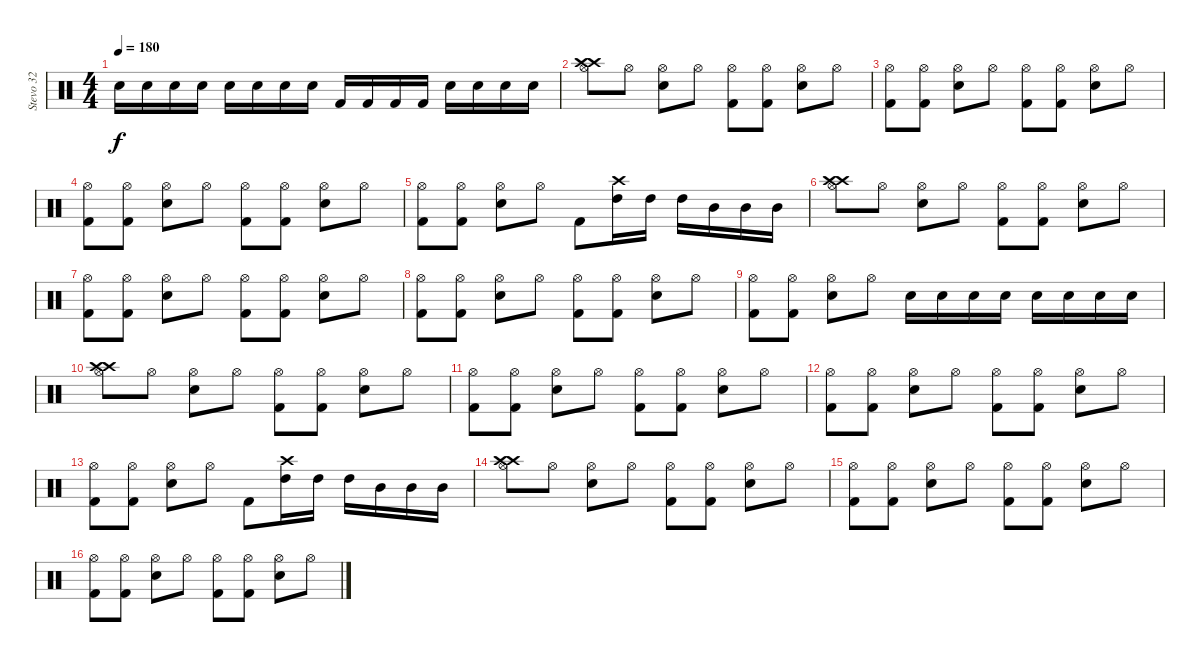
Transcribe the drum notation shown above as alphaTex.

\track ("Stevo 32" "Stevo 32") {instrument percussion}
\staff {score}
\articulation defaults
\ts (4 4)
\tempo 180
\clef neutral
\ks c "Snare (hit) 2".16{dy f} "Snare (hit) 2".16 "Snare (hit) 2".16 "Snare (hit) 2".16 "Snare (hit) 2".16 "Snare (hit) 2".16 "Snare (hit) 2".16 "Snare (hit) 2".16 "Kick (hit) 2".16 "Kick (hit) 2".16 "Kick (hit) 2".16 "Kick (hit) 2".16 "Snare (hit) 2".16 "Snare (hit) 2".16 "Snare (hit) 2".16 "Snare (hit) 2".16
|
("Crash high (hit)" "Crash high (hit)" "Hi-Hat (open)").8 "Hi-Hat (open)".8 ("Hi-Hat (open)" "Snare (hit) 2").8 "Hi-Hat (open)".8 ("Hi-Hat (open)" "Kick (hit) 2").8 ("Hi-Hat (open)" "Kick (hit) 2").8 ("Hi-Hat (open)" "Snare (hit) 2").8 "Hi-Hat (open)".8 |
("Hi-Hat (open)" "Kick (hit) 2").8 ("Hi-Hat (open)" "Kick (hit) 2").8 ("Hi-Hat (open)" "Snare (hit) 2").8 "Hi-Hat (open)".8 ("Hi-Hat (open)" "Kick (hit) 2").8 ("Hi-Hat (open)" "Kick (hit) 2").8 ("Hi-Hat (open)" "Snare (hit) 2").8 "Hi-Hat (open)".8 |
("Hi-Hat (open)" "Kick (hit) 2").8 ("Hi-Hat (open)" "Kick (hit) 2").8 ("Hi-Hat (open)" "Snare (hit) 2").8 "Hi-Hat (open)".8 ("Hi-Hat (open)" "Kick (hit) 2").8 ("Hi-Hat (open)" "Kick (hit) 2").8 ("Hi-Hat (open)" "Snare (hit) 2").8 "Hi-Hat (open)".8 |
("Hi-Hat (open)" "Kick (hit) 2").8 ("Hi-Hat (open)" "Kick (hit) 2").8 ("Hi-Hat (open)" "Snare (hit) 2").8 "Hi-Hat (open)".8 "Kick (hit) 2".8 ("Crash high (hit)" "High Tom (hit)").16 "High Tom (hit)".16 "High Tom (hit)".16 "Mid Tom (hit)".16 "Mid Tom (hit)".16 "Mid Tom (hit)".16 |
("Crash high (hit)" "Crash high (hit)" "Hi-Hat (open)").8 "Hi-Hat (open)".8 ("Hi-Hat (open)" "Snare (hit) 2").8 "Hi-Hat (open)".8 ("Hi-Hat (open)" "Kick (hit) 2").8 ("Hi-Hat (open)" "Kick (hit) 2").8 ("Hi-Hat (open)" "Snare (hit) 2").8 "Hi-Hat (open)".8 |
("Hi-Hat (open)" "Kick (hit) 2").8 ("Hi-Hat (open)" "Kick (hit) 2").8 ("Hi-Hat (open)" "Snare (hit) 2").8 "Hi-Hat (open)".8 ("Hi-Hat (open)" "Kick (hit) 2").8 ("Hi-Hat (open)" "Kick (hit) 2").8 ("Hi-Hat (open)" "Snare (hit) 2").8 "Hi-Hat (open)".8 |
("Hi-Hat (open)" "Kick (hit) 2").8 ("Hi-Hat (open)" "Kick (hit) 2").8 ("Hi-Hat (open)" "Snare (hit) 2").8 "Hi-Hat (open)".8 ("Hi-Hat (open)" "Kick (hit) 2").8 ("Hi-Hat (open)" "Kick (hit) 2").8 ("Hi-Hat (open)" "Snare (hit) 2").8 "Hi-Hat (open)".8 |
("Hi-Hat (open)" "Kick (hit) 2").8 ("Hi-Hat (open)" "Kick (hit) 2").8 ("Hi-Hat (open)" "Snare (hit) 2").8 "Hi-Hat (open)".8 "Snare (hit) 2".16 "Snare (hit) 2".16 "Snare (hit) 2".16 "Snare (hit) 2".16 "Snare (hit) 2".16 "Snare (hit) 2".16 "Snare (hit) 2".16 "Snare (hit) 2".16 |
("Crash high (hit)" "Crash high (hit)" "Hi-Hat (open)").8 "Hi-Hat (open)".8 ("Hi-Hat (open)" "Snare (hit) 2").8 "Hi-Hat (open)".8 ("Hi-Hat (open)" "Kick (hit) 2").8 ("Hi-Hat (open)" "Kick (hit) 2").8 ("Hi-Hat (open)" "Snare (hit) 2").8 "Hi-Hat (open)".8 |
("Hi-Hat (open)" "Kick (hit) 2").8 ("Hi-Hat (open)" "Kick (hit) 2").8 ("Hi-Hat (open)" "Snare (hit) 2").8 "Hi-Hat (open)".8{txt ""} ("Hi-Hat (open)" "Kick (hit) 2").8 ("Hi-Hat (open)" "Kick (hit) 2").8 ("Hi-Hat (open)" "Snare (hit) 2").8 "Hi-Hat (open)".8 |
("Hi-Hat (open)" "Kick (hit) 2").8 ("Hi-Hat (open)" "Kick (hit) 2").8 ("Hi-Hat (open)" "Snare (hit) 2").8 "Hi-Hat (open)".8 ("Hi-Hat (open)" "Kick (hit) 2").8 ("Hi-Hat (open)" "Kick (hit) 2").8 ("Hi-Hat (open)" "Snare (hit) 2").8 "Hi-Hat (open)".8 |
("Hi-Hat (open)" "Kick (hit) 2").8 ("Hi-Hat (open)" "Kick (hit) 2").8 ("Hi-Hat (open)" "Snare (hit) 2").8 "Hi-Hat (open)".8 "Kick (hit) 2".8 ("Crash high (hit)" "High Tom (hit)").16 "High Tom (hit)".16 "High Tom (hit)".16 "Mid Tom (hit)".16 "Mid Tom (hit)".16 "Mid Tom (hit)".16 |
("Crash high (hit)" "Crash high (hit)" "Hi-Hat (open)").8 "Hi-Hat (open)".8 ("Hi-Hat (open)" "Snare (hit) 2").8 "Hi-Hat (open)".8 ("Hi-Hat (open)" "Kick (hit) 2").8 ("Hi-Hat (open)" "Kick (hit) 2").8 ("Hi-Hat (open)" "Snare (hit) 2").8 "Hi-Hat (open)".8 |
("Hi-Hat (open)" "Kick (hit) 2").8 ("Hi-Hat (open)" "Kick (hit) 2").8 ("Hi-Hat (open)" "Snare (hit) 2").8 "Hi-Hat (open)".8 ("Hi-Hat (open)" "Kick (hit) 2").8 ("Hi-Hat (open)" "Kick (hit) 2").8 ("Hi-Hat (open)" "Snare (hit) 2").8 "Hi-Hat (open)".8 |
("Hi-Hat (open)" "Kick (hit) 2").8 ("Hi-Hat (open)" "Kick (hit) 2").8 ("Hi-Hat (open)" "Snare (hit) 2").8 "Hi-Hat (open)".8 ("Hi-Hat (open)" "Kick (hit) 2").8 ("Hi-Hat (open)" "Kick (hit) 2").8 ("Hi-Hat (open)" "Snare (hit) 2").8 "Hi-Hat (open)".8
